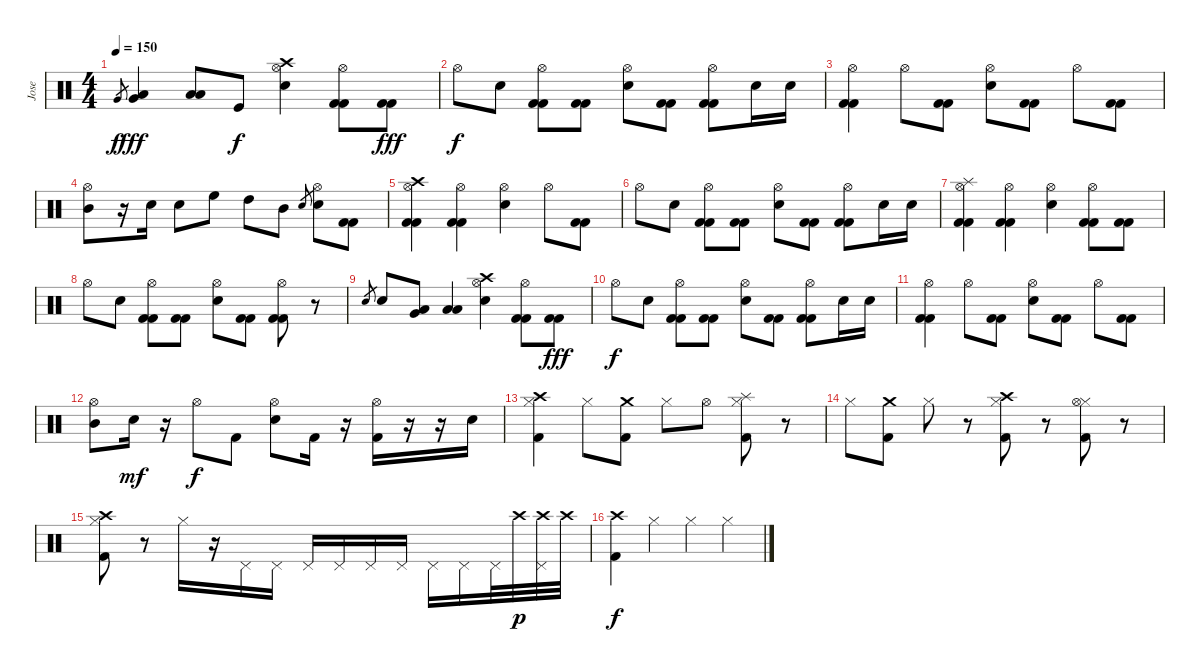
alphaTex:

\track ("Jose" "Jose") {instrument percussion}
\staff {score}
\articulation defaults
\ts (4 4)
\tempo 150
\clef neutral
\ks c "Very Low Tom (hit)".8{gr dy f}
("Low Tom (hit)" "Very Low Tom (hit)").4{dy fff} ("Low Tom (hit)" "Low Floor Tom (hit)").8 "Kick (hit)".8{dy f} ("Hi-Hat (open)" "Crash high (hit)" "Electric Snare (hit)").4 ("Hi-Hat (open)" "Kick (hit) 2" "Kick (hit) 2").8 ("Kick (hit) 2" "Kick (hit) 2").8{dy fff} |
"Hi-Hat (open)".8{dy f} "Electric Snare (hit)".8 ("Hi-Hat (open)" "Kick (hit) 2" "Kick (hit) 2").8 ("Kick (hit) 2" "Kick (hit) 2").8 ("Hi-Hat (open)" "Electric Snare (hit)").8 ("Kick (hit) 2" "Kick (hit) 2").8 ("Hi-Hat (open)" "Kick (hit) 2" "Kick (hit) 2").8 "Electric Snare (hit)".16 "Electric Snare (hit)".16 |
("Hi-Hat (open)" "Kick (hit) 2" "Kick (hit) 2").4 "Hi-Hat (open)".8 ("Kick (hit) 2" "Kick (hit) 2").8 ("Hi-Hat (open)" "Electric Snare (hit)").8 ("Kick (hit) 2" "Kick (hit) 2").8 "Hi-Hat (open)".8 ("Kick (hit) 2" "Kick (hit) 2").8 |
("Hi-Hat (open)" "Mid Tom (hit)").8 r.16 "Electric Snare (hit)".16 "Electric Snare (hit)".8 "High Floor Tom (hit)".8 "High Tom (hit)".8 "Mid Tom (hit)".8 "Electric Snare (hit)".8{gr} ("Hi-Hat (open)" "Electric Snare (hit)").8 ("Kick (hit) 2" "Kick (hit) 2").8 |
("Hi-Hat (open)" "Crash high (hit)" "Kick (hit) 2" "Kick (hit) 2").4 ("Hi-Hat (open)" "Kick (hit) 2" "Kick (hit) 2").4 ("Hi-Hat (open)" "Electric Snare (hit)").4 "Hi-Hat (open)".8 ("Kick (hit) 2" "Kick (hit) 2").8 |
"Hi-Hat (open)".8 "Electric Snare (hit)".8 ("Hi-Hat (open)" "Kick (hit) 2" "Kick (hit) 2").8 ("Kick (hit) 2" "Kick (hit) 2").8 ("Hi-Hat (open)" "Electric Snare (hit)").8 ("Kick (hit) 2" "Kick (hit) 2").8 ("Hi-Hat (open)" "Kick (hit) 2" "Kick (hit) 2").8 "Electric Snare (hit)".16 "Electric Snare (hit)".16 |
("Hi-Hat (open)" "Splash (hit)" "Kick (hit) 2" "Kick (hit) 2").4 ("Hi-Hat (open)" "Kick (hit) 2" "Kick (hit) 2").4 ("Hi-Hat (open)" "Electric Snare (hit)").4 ("Hi-Hat (open)" "Kick (hit) 2" "Kick (hit) 2").8 ("Kick (hit) 2" "Kick (hit) 2").8 |
"Hi-Hat (open)".8 "Electric Snare (hit)".8 ("Hi-Hat (open)" "Kick (hit) 2" "Kick (hit) 2").8 ("Kick (hit) 2" "Kick (hit) 2").8 ("Hi-Hat (open)" "Electric Snare (hit)").8 ("Kick (hit) 2" "Kick (hit) 2").8 ("Hi-Hat (open)" "Kick (hit) 2" "Kick (hit) 2").8 r.8 |
"Electric Snare (hit)".8{gr} "Electric Snare (hit)".8 ("Very Low Tom (hit)" "Low Tom (hit)").8 ("Low Floor Tom (hit)" "Low Tom (hit)").4 ("Hi-Hat (open)" "Crash high (hit)" "Electric Snare (hit)").4 ("Hi-Hat (open)" "Kick (hit) 2" "Kick (hit) 2").8 ("Kick (hit) 2" "Kick (hit) 2").8{dy fff} |
"Hi-Hat (open)".8{dy f} "Electric Snare (hit)".8 ("Hi-Hat (open)" "Kick (hit) 2" "Kick (hit) 2").8 ("Kick (hit) 2" "Kick (hit) 2").8 ("Hi-Hat (open)" "Electric Snare (hit)").8 ("Kick (hit) 2" "Kick (hit) 2").8 ("Hi-Hat (open)" "Kick (hit) 2" "Kick (hit) 2").8 "Electric Snare (hit)".16 "Electric Snare (hit)".16 |
("Hi-Hat (open)" "Kick (hit) 2" "Kick (hit) 2").4 "Hi-Hat (open)".8 ("Kick (hit) 2" "Kick (hit) 2").8 ("Hi-Hat (open)" "Electric Snare (hit)").8 ("Kick (hit) 2" "Kick (hit) 2").8 "Hi-Hat (open)".8 ("Kick (hit) 2" "Kick (hit) 2").8 |
("Hi-Hat (open)" "Mid Tom (hit)").8 "Electric Snare (hit)".16{dy mf} r.16 "Hi-Hat (open)".8{dy f} "Kick (hit) 2".8 ("Hi-Hat (open)" "Electric Snare (hit)").8 "Kick (hit) 2".16 r.16 ("Hi-Hat (open)" "Kick (hit) 2").16 r.16 r.16 "Electric Snare (hit)".16 |
("Crash high (hit)" "Hi-Hat (closed)" "Kick (hit) 2").4 "Hi-Hat (closed)".8 ("Crash medium (hit)" "Kick (hit) 2").8 "Hi-Hat (closed)".8 "Hi-Hat (open)".8 ("Hi-Hat (closed)" "Splash (hit)" "Kick (hit) 2").8 r.8 |
"Hi-Hat (closed)".8 ("Crash medium (hit)" "Kick (hit) 2").8 "Hi-Hat (closed)".8 r.8 ("Hi-Hat (closed)" "Crash high (hit)" "Kick (hit) 2").8 r.8 ("Hi-Hat (closed)" "Hi-Hat (open)" "Kick (hit) 2").8 r.8 |
("Hi-Hat (closed)" "Crash high (hit)" "Kick (hit) 2").8 r.8 "Hi-Hat (closed)".16 r.16 "Pedal Hi-Hat (hit)".16 "Pedal Hi-Hat (hit)".16 "Pedal Hi-Hat (hit)".16 "Pedal Hi-Hat (hit)".16 "Pedal Hi-Hat (hit)".16 "Pedal Hi-Hat (hit)".16 "Pedal Hi-Hat (hit)".16 "Pedal Hi-Hat (hit)".16 "Pedal Hi-Hat (hit)".32 "Crash high (hit)".32{dy p} ("Crash high (hit)" "Pedal Hi-Hat (hit)").32 "Crash high (hit)".32 |
("Crash high (hit)" "Kick (hit) 2").4{dy f} "Hi-Hat (closed)".4 "Hi-Hat (closed)".4 "Hi-Hat (closed)".4
